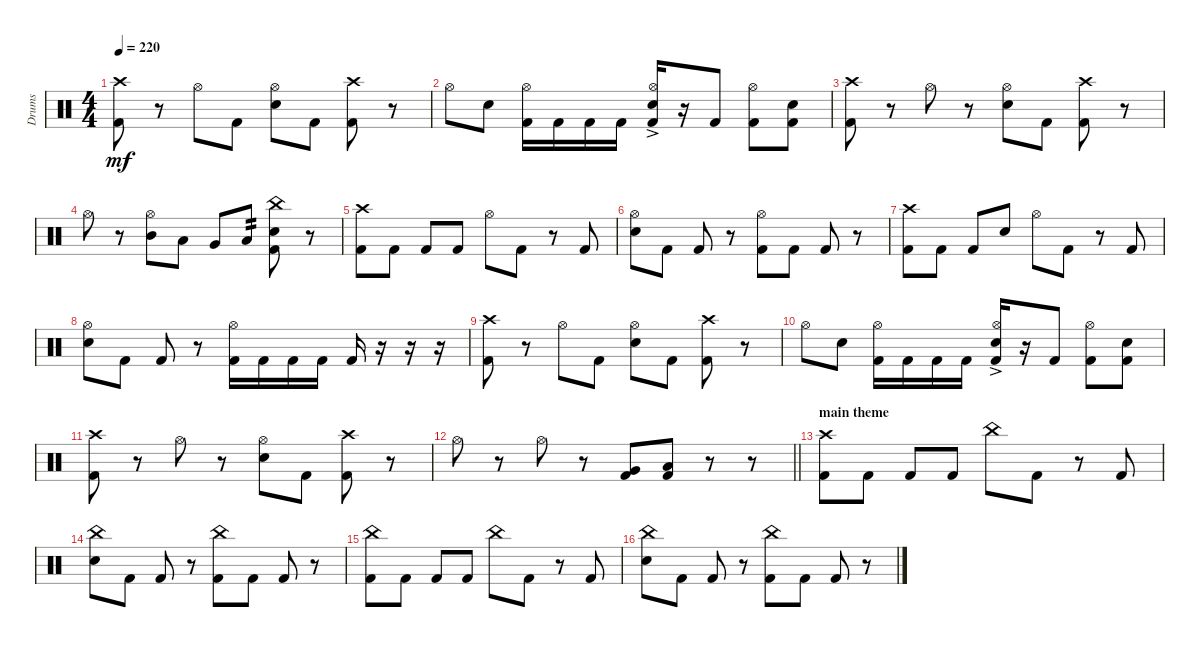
\track ("Drums" "Drums") {instrument percussion}
\staff {score}
\articulation defaults
\ts (4 4)
\section ("" "")
\tempo 220
\clef neutral
\ks c
("Kick (hit) 2" "Crash high (hit)").8{dy mf} r.8 "Hi-Hat (open)".8 "Kick (hit) 2".8 ("Electric Snare (hit)" "Hi-Hat (open)").8 "Kick (hit) 2".8 ("Kick (hit) 2" "Crash high (hit)").8 r.8 |
"Hi-Hat (open)".8 "Electric Snare (hit)".8 ("Kick (hit) 2" "Hi-Hat (open)").16 "Kick (hit) 2".16 "Kick (hit) 2".16 "Kick (hit) 2".16 ("Kick (hit) 2" "Electric Snare (hit)"{ac} "Hi-Hat (open)").16 r.16 "Kick (hit) 2".8 ("Kick (hit) 2" "Hi-Hat (open)").8 ("Kick (hit) 2" "Electric Snare (hit)").8 |
("Kick (hit) 2" "Crash high (hit)").8 r.8 "Hi-Hat (open)".8 r.8 ("Electric Snare (hit)" "Hi-Hat (open)").8 "Kick (hit) 2".8 ("Kick (hit) 2" "Crash high (hit)").8 r.8 |
"Hi-Hat (open)".8 r.8 ("Mid Tom (hit)" "Hi-Hat (open)").8 "Low Tom (hit)".8 "Very Low Tom (hit)".8 "Low Floor Tom (hit)".8{tp 2} ("Electric Snare (hit)" "Kick (hit) 2" "China (hit)").8 r.8 |
("Crash high (hit)" "Kick (hit) 2").8 "Kick (hit) 2".8 "Kick (hit) 2".8 "Kick (hit) 2".8 "Hi-Hat (open)".8 "Kick (hit) 2".8 r.8 "Kick (hit) 2".8 |
("Electric Snare (hit)" "Hi-Hat (open)").8 "Kick (hit) 2".8 "Kick (hit) 2".8 r.8 ("Kick (hit) 2" "Hi-Hat (open)").8 "Kick (hit) 2".8 "Kick (hit) 2".8 r.8 |
("Crash high (hit)" "Kick (hit) 2").8 "Kick (hit) 2".8 "Kick (hit) 2".8 "Electric Snare (hit)".8 "Hi-Hat (open)".8 "Kick (hit) 2".8 r.8 "Kick (hit) 2".8 |
("Electric Snare (hit)" "Hi-Hat (open)").8 "Kick (hit) 2".8 "Kick (hit) 2".8 r.8 ("Kick (hit) 2" "Hi-Hat (open)").16 "Kick (hit) 2".16 "Kick (hit) 2".16 "Kick (hit) 2".16 "Kick (hit) 2".16 r.16 r.16 r.16 |
("Kick (hit) 2" "Crash high (hit)").8 r.8 "Hi-Hat (open)".8 "Kick (hit) 2".8 ("Electric Snare (hit)" "Hi-Hat (open)").8 "Kick (hit) 2".8 ("Kick (hit) 2" "Crash high (hit)").8 r.8 |
"Hi-Hat (open)".8 "Electric Snare (hit)".8 ("Kick (hit) 2" "Hi-Hat (open)").16 "Kick (hit) 2".16 "Kick (hit) 2".16 "Kick (hit) 2".16 ("Kick (hit) 2" "Electric Snare (hit)"{ac} "Hi-Hat (open)").16 r.16 "Kick (hit) 2".8 ("Kick (hit) 2" "Hi-Hat (open)").8 ("Kick (hit) 2" "Electric Snare (hit)").8 |
("Kick (hit) 2" "Crash high (hit)").8 r.8 "Hi-Hat (open)".8 r.8 ("Electric Snare (hit)" "Hi-Hat (open)").8 "Kick (hit) 2".8 ("Kick (hit) 2" "Crash high (hit)").8 r.8 |
\barLineRight lightlight "Hi-Hat (open)".8
r.8 "Hi-Hat (open)".8 r.8 ("Kick (hit) 2" "Very Low Tom (hit)").8 ("Kick (hit) 2" "Low Floor Tom (hit)").8 r.8 r.8 |
\section ("" "main theme")
("Crash high (hit)" "Kick (hit) 2").8 "Kick (hit) 2".8 "Kick (hit) 2".8 "Kick (hit) 2".8 "China (hit)".8 "Kick (hit) 2".8 r.8 "Kick (hit) 2".8 |
("Electric Snare (hit)" "China (hit)").8 "Kick (hit) 2".8 "Kick (hit) 2".8 r.8 ("Kick (hit) 2" "China (hit)").8 "Kick (hit) 2".8 "Kick (hit) 2".8 r.8 |
("China (hit)" "Kick (hit) 2").8 "Kick (hit) 2".8 "Kick (hit) 2".8 "Kick (hit) 2".8 "China (hit)".8 "Kick (hit) 2".8 r.8 "Kick (hit) 2".8 |
("Electric Snare (hit)" "China (hit)").8 "Kick (hit) 2".8 "Kick (hit) 2".8 r.8 ("Kick (hit) 2" "China (hit)").8 "Kick (hit) 2".8 "Kick (hit) 2".8 r.8
